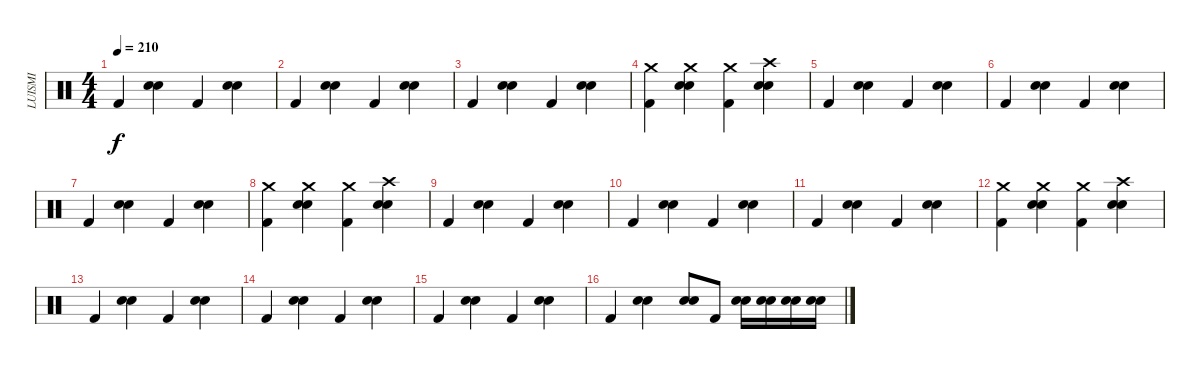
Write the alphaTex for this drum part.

\track ("LUISMI" "LUISMI") {instrument percussion}
\staff {score}
\articulation defaults
\ts (4 4)
\tempo 210
\clef neutral
\ks c "Kick (hit) 2".4{dy f}
("Electric Snare (hit)" "Snare (hit) 2").4 "Kick (hit) 2".4 ("Electric Snare (hit)" "Snare (hit) 2").4 |
"Kick (hit) 2".4 ("Electric Snare (hit)" "Snare (hit) 2").4 "Kick (hit) 2".4 ("Electric Snare (hit)" "Snare (hit) 2").4 |
"Kick (hit) 2".4 ("Electric Snare (hit)" "Snare (hit) 2").4 "Kick (hit) 2".4 ("Electric Snare (hit)" "Snare (hit) 2").4 |
("Crash medium (hit)" "Kick (hit) 2").4 ("Crash medium (hit)" "Electric Snare (hit)" "Snare (hit) 2").4 ("Crash medium (hit)" "Kick (hit) 2").4 ("Crash high (hit)" "Electric Snare (hit)" "Snare (hit) 2").4 |
"Kick (hit) 2".4 ("Electric Snare (hit)" "Snare (hit) 2").4 "Kick (hit) 2".4 ("Electric Snare (hit)" "Snare (hit) 2").4 |
"Kick (hit) 2".4 ("Electric Snare (hit)" "Snare (hit) 2").4 "Kick (hit) 2".4 ("Electric Snare (hit)" "Snare (hit) 2").4 |
"Kick (hit) 2".4 ("Electric Snare (hit)" "Snare (hit) 2").4 "Kick (hit) 2".4 ("Electric Snare (hit)" "Snare (hit) 2").4 |
("Crash medium (hit)" "Kick (hit) 2").4 ("Crash medium (hit)" "Electric Snare (hit)" "Snare (hit) 2").4 ("Crash medium (hit)" "Kick (hit) 2").4 ("Crash high (hit)" "Electric Snare (hit)" "Snare (hit) 2").4 |
"Kick (hit) 2".4 ("Electric Snare (hit)" "Snare (hit) 2").4 "Kick (hit) 2".4 ("Electric Snare (hit)" "Snare (hit) 2").4 |
"Kick (hit) 2".4 ("Electric Snare (hit)" "Snare (hit) 2").4 "Kick (hit) 2".4 ("Electric Snare (hit)" "Snare (hit) 2").4 |
"Kick (hit) 2".4 ("Electric Snare (hit)" "Snare (hit) 2").4 "Kick (hit) 2".4 ("Electric Snare (hit)" "Snare (hit) 2").4 |
("Crash medium (hit)" "Kick (hit) 2").4 ("Crash medium (hit)" "Electric Snare (hit)" "Snare (hit) 2").4 ("Crash medium (hit)" "Kick (hit) 2").4 ("Crash high (hit)" "Electric Snare (hit)" "Snare (hit) 2").4 |
"Kick (hit) 2".4 ("Electric Snare (hit)" "Snare (hit) 2").4 "Kick (hit) 2".4 ("Electric Snare (hit)" "Snare (hit) 2").4 |
"Kick (hit) 2".4 ("Electric Snare (hit)" "Snare (hit) 2").4 "Kick (hit) 2".4 ("Electric Snare (hit)" "Snare (hit) 2").4 |
"Kick (hit) 2".4 ("Electric Snare (hit)" "Snare (hit) 2").4 "Kick (hit) 2".4 ("Electric Snare (hit)" "Snare (hit) 2").4 |
"Kick (hit) 2".4 ("Electric Snare (hit)" "Snare (hit) 2").4 ("Electric Snare (hit)" "Snare (hit) 2").8 "Kick (hit) 2".8 ("Electric Snare (hit)" "Snare (hit) 2").16 ("Electric Snare (hit)" "Snare (hit) 2").16 ("Electric Snare (hit)" "Snare (hit) 2").16 ("Electric Snare (hit)" "Snare (hit) 2").16
